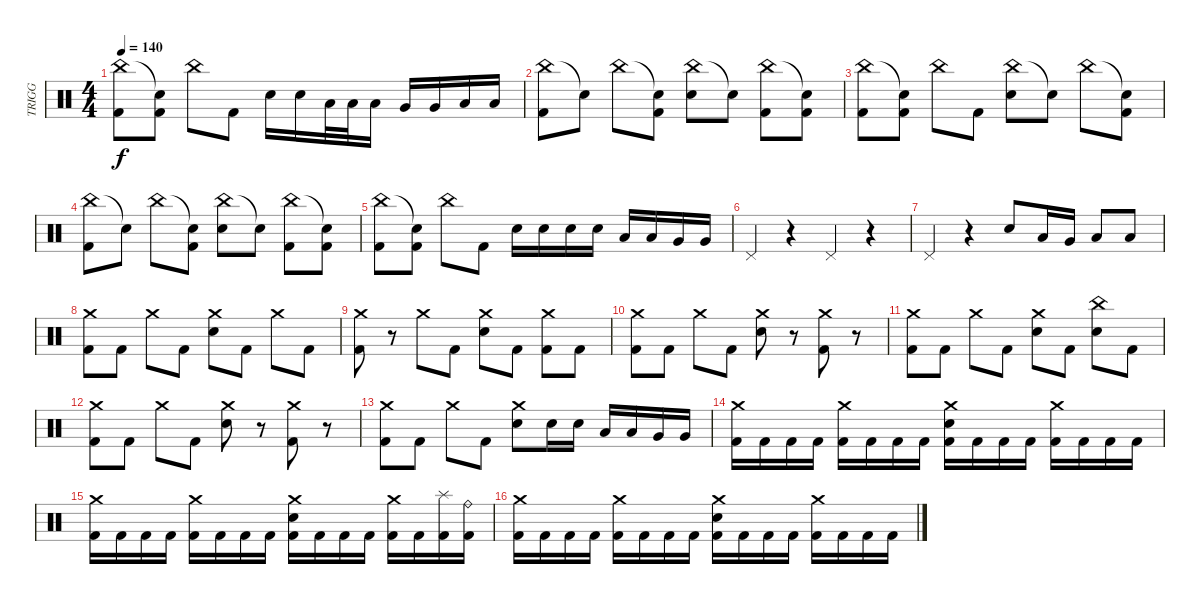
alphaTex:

\track ("TRIGG" "TRIGG") {instrument percussion}
\staff {score}
\articulation defaults
\ts (4 4)
\tempo 140
\clef neutral
\ks c
("China (hit)" "Kick (hit) 2").8{dy f} ("Snare (hit)"{t} "Kick (hit) 2").8 "China (hit)".8 "Kick (hit) 2".8 "Electric Snare (hit)".16 "Electric Snare (hit)".16 "Low Tom (hit)".32 "Low Tom (hit)".32 "Low Tom (hit)".16 "Very Low Tom (hit)".16 "Very Low Tom (hit)".16 "Low Floor Tom (hit)".16 "Low Floor Tom (hit)".16 |
("China (hit)" "Kick (hit) 2").8 "Snare (hit)"{t}.8 "China (hit)".8 ("Snare (hit)"{t} "Kick (hit) 2").8 ("China (hit)" "Electric Snare (hit)").8 "Snare (hit)"{t}.8 ("China (hit)" "Kick (hit) 2").8 ("Snare (hit)"{t} "Kick (hit) 2").8 |
("China (hit)" "Kick (hit) 2").8 ("Snare (hit)"{t} "Kick (hit) 2").8 "China (hit)".8 "Kick (hit) 2".8 ("China (hit)" "Electric Snare (hit)").8 "Snare (hit)"{t}.8 "China (hit)".8 ("Snare (hit)"{t} "Kick (hit) 2").8 |
("China (hit)" "Kick (hit) 2").8 "Snare (hit)"{t}.8 "China (hit)".8 ("Snare (hit)"{t} "Kick (hit) 2").8 ("China (hit)" "Electric Snare (hit)").8 "Snare (hit)"{t}.8 ("China (hit)" "Kick (hit) 2").8 ("Snare (hit)"{t} "Kick (hit) 2").8 |
("China (hit)" "Kick (hit) 2").8 ("Snare (hit)"{t} "Kick (hit) 2").8 "China (hit)".8 "Kick (hit) 2".8 "Electric Snare (hit)".16 "Electric Snare (hit)".16 "Electric Snare (hit)".16 "Electric Snare (hit)".16 "Low Tom (hit)".16 "Low Tom (hit)".16 "Very Low Tom (hit)".16 "Very Low Tom (hit)".16 |
"Pedal Hi-Hat (hit)".4 r.4 "Pedal Hi-Hat (hit)".4 r.4 |
"Pedal Hi-Hat (hit)".4 r.4 "Electric Snare (hit)".8 "Low Tom (hit)".16 "Very Low Tom (hit)".16 "Low Floor Tom (hit)".8 "Low Floor Tom (hit)".8 |
("Crash medium (hit)" "Kick (hit) 2").8 "Kick (hit) 2".8 "Crash medium (hit)".8 "Kick (hit) 2".8 ("Crash medium (hit)" "Electric Snare (hit)").8 "Kick (hit) 2".8 "Crash medium (hit)".8 "Kick (hit) 2".8 |
("Crash medium (hit)" "Kick (hit) 2").8 r.8 "Crash medium (hit)".8 "Kick (hit) 2".8 ("Crash medium (hit)" "Electric Snare (hit)").8 "Kick (hit) 2".8 ("Crash medium (hit)" "Kick (hit) 2").8 "Kick (hit) 2".8 |
("Crash medium (hit)" "Kick (hit) 2").8 "Kick (hit) 2".8 "Crash medium (hit)".8 "Kick (hit) 2".8 ("Crash medium (hit)" "Electric Snare (hit)").8 r.8 ("Crash medium (hit)" "Kick (hit) 2").8 r.8 |
("Crash medium (hit)" "Kick (hit) 2").8 "Kick (hit) 2".8 "Crash medium (hit)".8 "Kick (hit) 2".8 ("Crash medium (hit)" "Electric Snare (hit)").8 "Kick (hit) 2".8 ("China (hit)" "Electric Snare (hit)").8 "Kick (hit) 2".8 |
("Crash medium (hit)" "Kick (hit) 2").8 "Kick (hit) 2".8 "Crash medium (hit)".8 "Kick (hit) 2".8 ("Crash medium (hit)" "Electric Snare (hit)").8 r.8 ("Crash medium (hit)" "Kick (hit) 2").8 r.8 |
("Crash medium (hit)" "Kick (hit) 2").8 "Kick (hit) 2".8 "Crash medium (hit)".8 "Kick (hit) 2".8 ("Crash medium (hit)" "Electric Snare (hit)").8 "Electric Snare (hit)".16 "Electric Snare (hit)".16 "Low Tom (hit)".16 "Low Tom (hit)".16 "Very Low Tom (hit)".16 "Very Low Tom (hit)".16 |
("Crash medium (hit)" "Kick (hit) 2").16 "Kick (hit) 2".16 "Kick (hit) 2".16 "Kick (hit) 2".16 ("Crash medium (hit)" "Kick (hit) 2").16 "Kick (hit) 2".16 "Kick (hit) 2".16 "Kick (hit) 2".16 ("Crash medium (hit)" "Electric Snare (hit)" "Kick (hit) 2").16 "Kick (hit) 2".16 "Kick (hit) 2".16 "Kick (hit) 2".16 ("Crash medium (hit)" "Kick (hit) 2").16 "Kick (hit) 2".16 "Kick (hit) 2".16 "Kick (hit) 2".16 |
("Crash medium (hit)" "Kick (hit) 2").16 "Kick (hit) 2".16 "Kick (hit) 2".16 "Kick (hit) 2".16 ("Crash medium (hit)" "Kick (hit) 2").16 "Kick (hit) 2".16 "Kick (hit) 2".16 "Kick (hit) 2".16 ("Crash medium (hit)" "Electric Snare (hit)" "Kick (hit) 2").16 "Kick (hit) 2".16 "Kick (hit) 2".16 "Kick (hit) 2".16 ("Crash medium (hit)" "Kick (hit) 2").16 "Kick (hit) 2".16 ("Splash (hit)" "Kick (hit) 2").16 ("Ride (bell)" "Kick (hit) 2").16 |
("Crash medium (hit)" "Kick (hit) 2").16 "Kick (hit) 2".16 "Kick (hit) 2".16 "Kick (hit) 2".16 ("Crash medium (hit)" "Kick (hit) 2").16 "Kick (hit) 2".16 "Kick (hit) 2".16 "Kick (hit) 2".16 ("Crash medium (hit)" "Electric Snare (hit)" "Kick (hit) 2").16 "Kick (hit) 2".16 "Kick (hit) 2".16 "Kick (hit) 2".16 ("Crash medium (hit)" "Kick (hit) 2").16 "Kick (hit) 2".16 "Kick (hit) 2".16 "Kick (hit) 2".16
